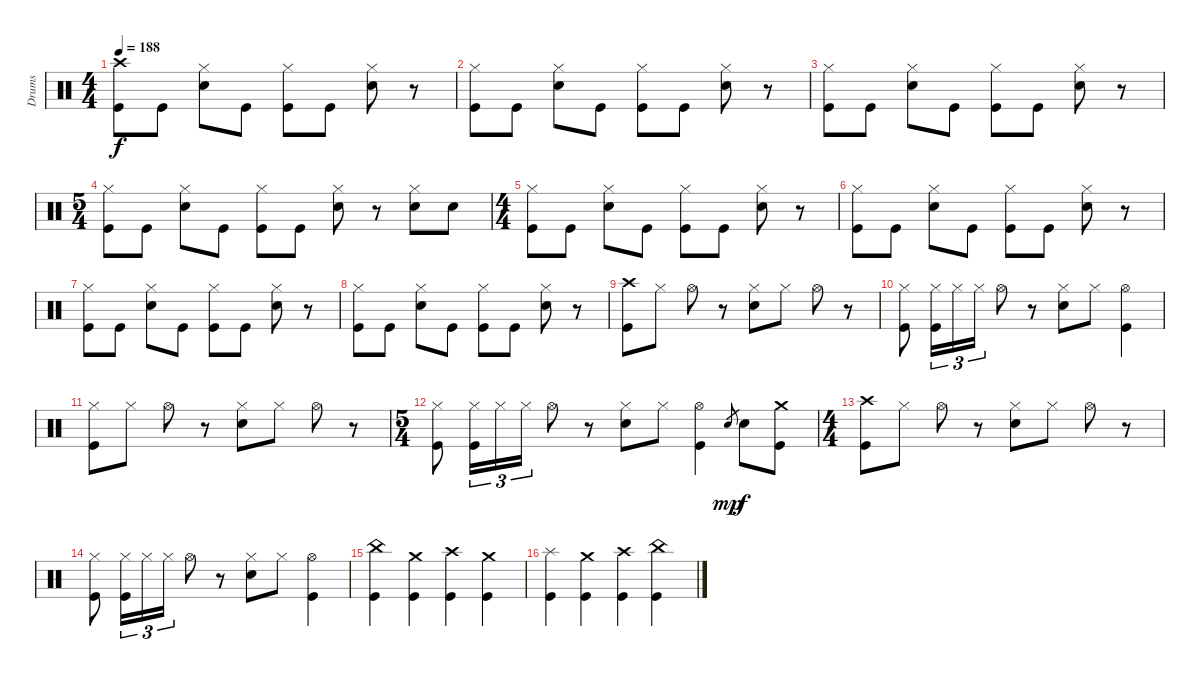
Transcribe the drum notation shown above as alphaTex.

\track ("Drums" "Drums") {instrument percussion}
\staff {score}
\articulation defaults
\ts (4 4)
\tempo 188
\clef neutral
\ks c
("Crash high (hit)" "Kick (hit)").8{dy f} "Kick (hit)".8 ("Hi-Hat (closed)" "Electric Snare (hit)").8 "Kick (hit)".8 ("Hi-Hat (closed)" "Kick (hit)").8 "Kick (hit)".8 ("Hi-Hat (closed)" "Electric Snare (hit)").8 r.8 |
("Hi-Hat (closed)" "Kick (hit)").8 "Kick (hit)".8 ("Hi-Hat (closed)" "Electric Snare (hit)").8 "Kick (hit)".8 ("Hi-Hat (closed)" "Kick (hit)").8 "Kick (hit)".8 ("Hi-Hat (closed)" "Electric Snare (hit)").8 r.8 |
("Hi-Hat (closed)" "Kick (hit)").8 "Kick (hit)".8 ("Hi-Hat (closed)" "Electric Snare (hit)").8 "Kick (hit)".8 ("Hi-Hat (closed)" "Kick (hit)").8 "Kick (hit)".8 ("Hi-Hat (closed)" "Electric Snare (hit)").8 r.8 |
\ts (5 4)
("Hi-Hat (closed)" "Kick (hit)").8 "Kick (hit)".8 ("Hi-Hat (closed)" "Electric Snare (hit)").8 "Kick (hit)".8 ("Hi-Hat (closed)" "Kick (hit)").8 "Kick (hit)".8 ("Hi-Hat (closed)" "Electric Snare (hit)").8 r.8 ("Hi-Hat (closed)" "Electric Snare (hit)").8 "Electric Snare (hit)".8 |
\ts (4 4)
("Hi-Hat (closed)" "Kick (hit)").8 "Kick (hit)".8 ("Hi-Hat (closed)" "Electric Snare (hit)").8 "Kick (hit)".8 ("Hi-Hat (closed)" "Kick (hit)").8 "Kick (hit)".8 ("Hi-Hat (closed)" "Electric Snare (hit)").8 r.8 |
("Hi-Hat (closed)" "Kick (hit)").8 "Kick (hit)".8 ("Hi-Hat (closed)" "Electric Snare (hit)").8 "Kick (hit)".8 ("Hi-Hat (closed)" "Kick (hit)").8 "Kick (hit)".8 ("Hi-Hat (closed)" "Electric Snare (hit)").8 r.8 |
("Hi-Hat (closed)" "Kick (hit)").8 "Kick (hit)".8 ("Hi-Hat (closed)" "Electric Snare (hit)").8 "Kick (hit)".8 ("Hi-Hat (closed)" "Kick (hit)").8 "Kick (hit)".8 ("Hi-Hat (closed)" "Electric Snare (hit)").8 r.8 |
("Hi-Hat (closed)" "Kick (hit)").8 "Kick (hit)".8 ("Hi-Hat (closed)" "Electric Snare (hit)").8 "Kick (hit)".8 ("Hi-Hat (closed)" "Kick (hit)").8 "Kick (hit)".8 ("Hi-Hat (closed)" "Electric Snare (hit)").8 r.8 |
("Crash high (hit)" "Kick (hit)").8 "Hi-Hat (closed)".8 "Hi-Hat (open)".8 r.8 ("Hi-Hat (closed)" "Electric Snare (hit)").8 "Hi-Hat (closed)".8 "Hi-Hat (open)".8 r.8 |
("Hi-Hat (closed)" "Kick (hit)").8 ("Hi-Hat (closed)" "Kick (hit)").16{tu (3 2)} "Hi-Hat (closed)".16{tu (3 2)} "Hi-Hat (closed)".16{tu (3 2)} "Hi-Hat (open)".8 r.8 ("Hi-Hat (closed)" "Electric Snare (hit)").8 "Hi-Hat (closed)".8 ("Hi-Hat (open)" "Kick (hit)").4 |
("Hi-Hat (closed)" "Kick (hit)").8 "Hi-Hat (closed)".8 "Hi-Hat (open)".8 r.8 ("Hi-Hat (closed)" "Electric Snare (hit)").8 "Hi-Hat (closed)".8 "Hi-Hat (open)".8 r.8 |
\ts (5 4)
("Hi-Hat (closed)" "Kick (hit)").8 ("Hi-Hat (closed)" "Kick (hit)").16{tu (3 2)} "Hi-Hat (closed)".16{tu (3 2)} "Hi-Hat (closed)".16{tu (3 2)} "Hi-Hat (open)".8 r.8 ("Hi-Hat (closed)" "Electric Snare (hit)").8 "Hi-Hat (closed)".8 ("Hi-Hat (open)" "Kick (hit)").4 "Electric Snare (hit)".8{gr dy mp} "Electric Snare (hit)".8{dy f} ("Crash medium (hit)" "Kick (hit)").8 |
\ts (4 4)
("Crash high (hit)" "Kick (hit)").8 "Hi-Hat (closed)".8 "Hi-Hat (open)".8 r.8 ("Hi-Hat (closed)" "Electric Snare (hit)").8 "Hi-Hat (closed)".8 "Hi-Hat (open)".8 r.8 |
("Hi-Hat (closed)" "Kick (hit)").8 ("Hi-Hat (closed)" "Kick (hit)").16{tu (3 2)} "Hi-Hat (closed)".16{tu (3 2)} "Hi-Hat (closed)".16{tu (3 2)} "Hi-Hat (open)".8 r.8 ("Hi-Hat (closed)" "Electric Snare (hit)").8 "Hi-Hat (closed)".8 ("Hi-Hat (open)" "Kick (hit)").4 |
("China (hit)" "Kick (hit)").4 ("Crash medium (hit)" "Kick (hit)").4 ("Crash high (hit)" "Kick (hit)").4 ("Crash medium (hit)" "Kick (hit)").4 |
("Splash (hit)" "Kick (hit)").4 ("Crash medium (hit)" "Kick (hit)").4 ("Crash high (hit)" "Kick (hit)").4 ("China (hit)" "Kick (hit)").4
